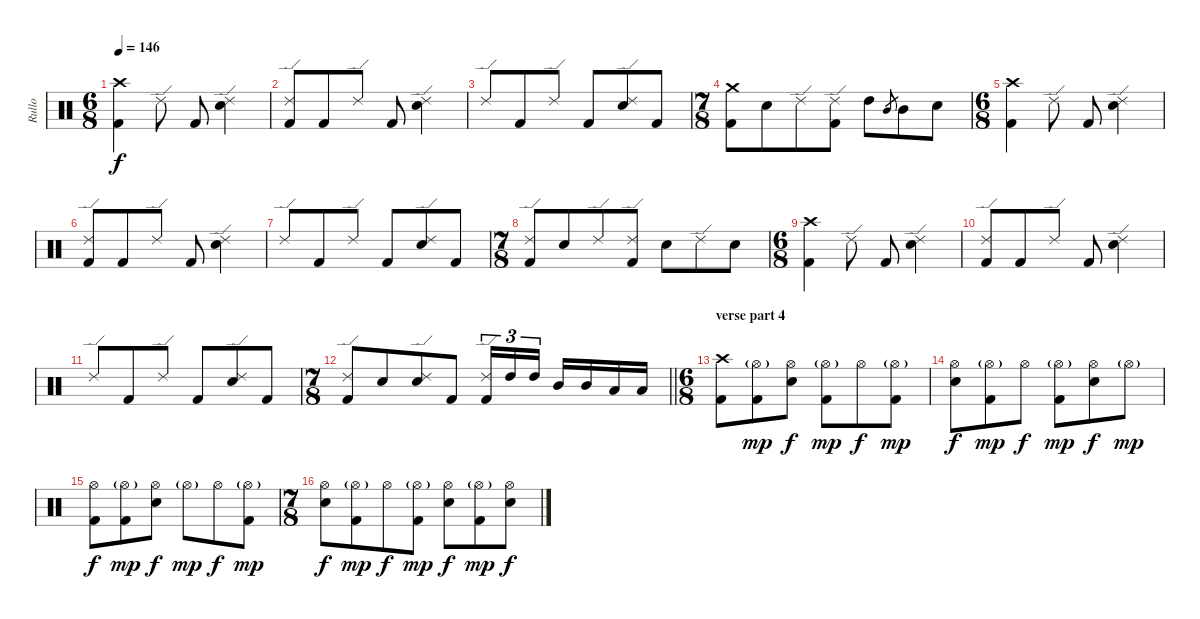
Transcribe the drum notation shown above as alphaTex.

\track ("Rullo" "Rullo") {instrument percussion}
\staff {score}
\articulation defaults
\ts (6 8)
\tempo 146
\clef neutral
\ks c
("Crash high (hit)" "Kick (hit) 2").4{dy f} "Ride (edge) 2".8 "Kick (hit) 2".8 ("Ride (edge) 2" "Electric Snare (hit)").4 |
("Ride (edge) 2" "Kick (hit) 2").8 "Kick (hit) 2".8 "Ride (edge) 2".8 "Kick (hit) 2".8 ("Ride (edge) 2" "Electric Snare (hit)").4 |
"Ride (edge) 2".8 "Kick (hit) 2".8 "Ride (edge) 2".8 "Kick (hit) 2".8 ("Ride (edge) 2" "Electric Snare (hit)").8 "Kick (hit) 2".8 |
\ts (7 8)
("Crash medium (hit)" "Kick (hit) 2").8 "Electric Snare (hit)".8 "Ride (edge) 2".8 ("Ride (edge) 2" "Kick (hit) 2").8 "High Tom (hit)".8 "Mid Tom (hit)".8{gr} "Mid Tom (hit)".8 "Electric Snare (hit)".8 |
\ts (6 8)
("Crash high (hit)" "Kick (hit) 2").4 "Ride (edge) 2".8 "Kick (hit) 2".8 ("Ride (edge) 2" "Electric Snare (hit)").4 |
("Ride (edge) 2" "Kick (hit) 2").8 "Kick (hit) 2".8 "Ride (edge) 2".8 "Kick (hit) 2".8 ("Ride (edge) 2" "Electric Snare (hit)").4 |
"Ride (edge) 2".8 "Kick (hit) 2".8 "Ride (edge) 2".8 "Kick (hit) 2".8 ("Ride (edge) 2" "Electric Snare (hit)").8 "Kick (hit) 2".8 |
\ts (7 8)
("Ride (edge) 2" "Kick (hit) 2").8 "Electric Snare (hit)".8 "Ride (edge) 2".8 ("Ride (edge) 2" "Kick (hit) 2").8 "Electric Snare (hit)".8 "Ride (edge) 2".8 "Electric Snare (hit)".8 |
\ts (6 8)
("Crash high (hit)" "Kick (hit) 2").4 "Ride (edge) 2".8 "Kick (hit) 2".8 ("Ride (edge) 2" "Electric Snare (hit)").4 |
("Ride (edge) 2" "Kick (hit) 2").8 "Kick (hit) 2".8 "Ride (edge) 2".8 "Kick (hit) 2".8 ("Ride (edge) 2" "Electric Snare (hit)").4 |
"Ride (edge) 2".8 "Kick (hit) 2".8 "Ride (edge) 2".8 "Kick (hit) 2".8 ("Ride (edge) 2" "Electric Snare (hit)").8 "Kick (hit) 2".8 |
\ts (7 8)
\barLineRight lightlight
("Ride (edge) 2" "Kick (hit) 2").8 "Electric Snare (hit)".8 ("Ride (edge) 2" "Electric Snare (hit)").8 "Kick (hit) 2".8 ("Ride (edge) 2" "Kick (hit) 2").16{tu (3 2)} "High Tom (hit)".16{tu (3 2)} "High Tom (hit)".16{tu (3 2)} "Mid Tom (hit)".16 "Mid Tom (hit)".16 "Low Tom (hit)".16 "Low Tom (hit)".16 |
\ts (6 8)
\section ("" "verse part 4")
("Crash high (hit)" "Kick (hit) 2").8 ("Hi-Hat (open)"{g} "Kick (hit) 2").8{dy mp} ("Hi-Hat (open)" "Electric Snare (hit)").8{dy f} ("Hi-Hat (open)"{g} "Kick (hit) 2").8{dy mp} "Hi-Hat (open)".8{dy f} ("Hi-Hat (open)"{g} "Kick (hit) 2").8{dy mp} |
("Hi-Hat (open)" "Electric Snare (hit)").8{dy f} ("Hi-Hat (open)"{g} "Kick (hit) 2").8{dy mp} "Hi-Hat (open)".8{dy f} ("Hi-Hat (open)"{g} "Kick (hit) 2").8{dy mp} ("Hi-Hat (open)" "Electric Snare (hit)").8{dy f} "Hi-Hat (open)"{g}.8{dy mp} |
("Hi-Hat (open)" "Kick (hit) 2").8{dy f} ("Hi-Hat (open)"{g} "Kick (hit) 2").8{dy mp} ("Hi-Hat (open)" "Electric Snare (hit)").8{dy f} "Hi-Hat (open)"{g}.8{dy mp} "Hi-Hat (open)".8{dy f} ("Hi-Hat (open)"{g} "Kick (hit) 2").8{dy mp} |
\ts (7 8)
("Hi-Hat (open)" "Electric Snare (hit)").8{dy f} ("Hi-Hat (open)"{g} "Kick (hit) 2").8{dy mp} "Hi-Hat (open)".8{dy f} ("Hi-Hat (open)"{g} "Kick (hit) 2").8{dy mp} ("Hi-Hat (open)" "Electric Snare (hit)").8{dy f} ("Hi-Hat (open)"{g} "Kick (hit) 2").8{dy mp} ("Hi-Hat (open)" "Electric Snare (hit)").8{dy f}
